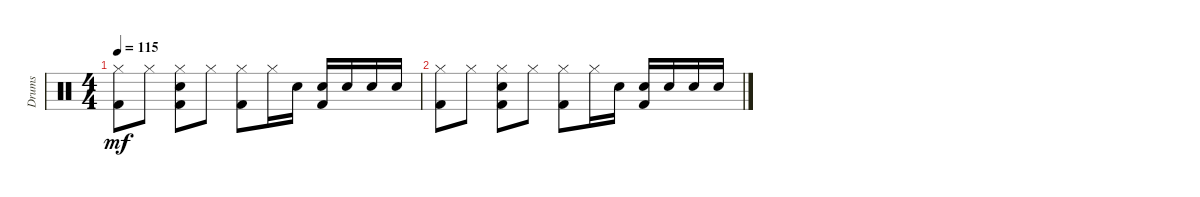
\track ("Drums" "Drums") {instrument percussion}
\staff {score}
\articulation defaults
\ts (4 4)
\tempo 115
\clef neutral
\ks c
("Hi-Hat (closed)" "Kick (hit) 2").8{dy mf} "Hi-Hat (closed)".8 ("Hi-Hat (closed)" "Electric Snare (hit)" "Kick (hit) 2").8 "Hi-Hat (closed)".8 ("Hi-Hat (closed)" "Kick (hit) 2").8 "Hi-Hat (closed)".16 "Electric Snare (hit)".16 ("Electric Snare (hit)" "Kick (hit) 2").16 "Electric Snare (hit)".16 "Electric Snare (hit)".16 "Electric Snare (hit)".16 |
("Hi-Hat (closed)" "Kick (hit) 2").8 "Hi-Hat (closed)".8 ("Hi-Hat (closed)" "Electric Snare (hit)" "Kick (hit) 2").8 "Hi-Hat (closed)".8 ("Hi-Hat (closed)" "Kick (hit) 2").8 "Hi-Hat (closed)".16 "Electric Snare (hit)".16 ("Electric Snare (hit)" "Kick (hit) 2").16 "Electric Snare (hit)".16 "Electric Snare (hit)".16 "Electric Snare (hit)".16
